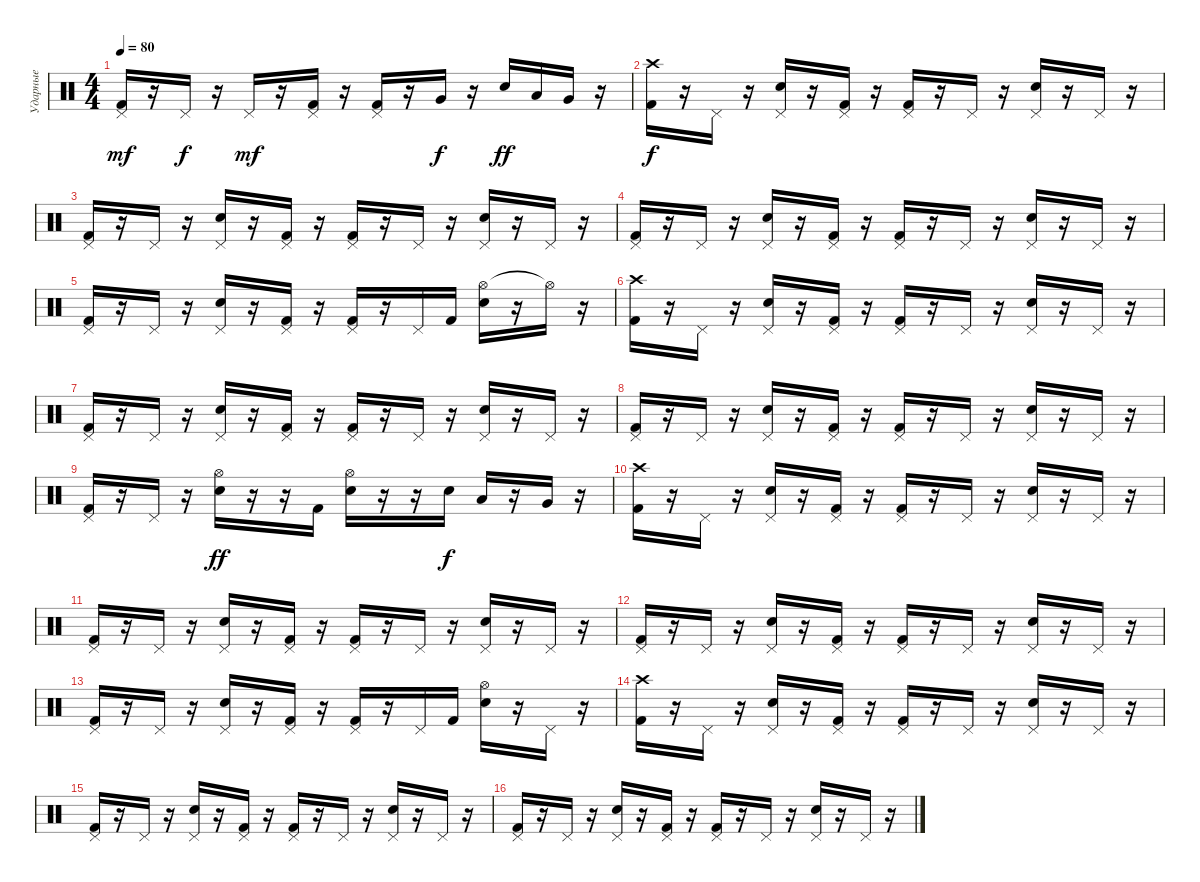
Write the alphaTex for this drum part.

\track ("Ударные" "Ударные") {instrument percussion}
\staff {score}
\articulation defaults
\ts (4 4)
\tempo 80
\clef neutral
\ks c
("Pedal Hi-Hat (hit)" "Kick (hit) 2").16{dy mf} r.16 "Pedal Hi-Hat (hit)".16{dy f} r.16 "Pedal Hi-Hat (hit)".16{dy mf} r.16 ("Pedal Hi-Hat (hit)" "Kick (hit) 2").16 r.16 ("Pedal Hi-Hat (hit)" "Kick (hit) 2").16 r.16 "Very Low Tom (hit)".16{dy f} r.16 "Electric Snare (hit)".16{dy ff} "Low Tom (hit)".16 "Very Low Tom (hit)".16 r.16 |
("Crash high (hit)" "Kick (hit) 2").16{dy f} r.16 "Pedal Hi-Hat (hit)".16 r.16 ("Pedal Hi-Hat (hit)" "Electric Snare (hit)").16 r.16 ("Pedal Hi-Hat (hit)" "Kick (hit) 2").16 r.16 ("Pedal Hi-Hat (hit)" "Kick (hit) 2").16 r.16 "Pedal Hi-Hat (hit)".16 r.16 ("Pedal Hi-Hat (hit)" "Electric Snare (hit)").16 r.16 "Pedal Hi-Hat (hit)".16 r.16 |
("Pedal Hi-Hat (hit)" "Kick (hit) 2").16 r.16 "Pedal Hi-Hat (hit)".16 r.16 ("Pedal Hi-Hat (hit)" "Electric Snare (hit)").16 r.16 ("Pedal Hi-Hat (hit)" "Kick (hit) 2").16 r.16 ("Pedal Hi-Hat (hit)" "Kick (hit) 2").16 r.16 "Pedal Hi-Hat (hit)".16 r.16 ("Pedal Hi-Hat (hit)" "Electric Snare (hit)").16 r.16 "Pedal Hi-Hat (hit)".16 r.16 |
("Pedal Hi-Hat (hit)" "Kick (hit) 2").16 r.16 "Pedal Hi-Hat (hit)".16 r.16 ("Pedal Hi-Hat (hit)" "Electric Snare (hit)").16 r.16 ("Pedal Hi-Hat (hit)" "Kick (hit) 2").16 r.16 ("Pedal Hi-Hat (hit)" "Kick (hit) 2").16 r.16 "Pedal Hi-Hat (hit)".16 r.16 ("Pedal Hi-Hat (hit)" "Electric Snare (hit)").16 r.16 "Pedal Hi-Hat (hit)".16 r.16 |
("Pedal Hi-Hat (hit)" "Kick (hit) 2").16 r.16 "Pedal Hi-Hat (hit)".16 r.16 ("Pedal Hi-Hat (hit)" "Electric Snare (hit)").16 r.16 ("Pedal Hi-Hat (hit)" "Kick (hit) 2").16 r.16 ("Pedal Hi-Hat (hit)" "Kick (hit) 2").16 r.16 "Pedal Hi-Hat (hit)".16 "Kick (hit) 2".16 ("Hi-Hat (open)" "Electric Snare (hit)").16 r.16 "Hi-Hat (open)"{t}.16 r.16 |
("Crash high (hit)" "Kick (hit) 2").16 r.16 "Pedal Hi-Hat (hit)".16 r.16 ("Pedal Hi-Hat (hit)" "Electric Snare (hit)").16 r.16 ("Pedal Hi-Hat (hit)" "Kick (hit) 2").16 r.16 ("Pedal Hi-Hat (hit)" "Kick (hit) 2").16 r.16 "Pedal Hi-Hat (hit)".16 r.16 ("Pedal Hi-Hat (hit)" "Electric Snare (hit)").16 r.16 "Pedal Hi-Hat (hit)".16 r.16 |
("Pedal Hi-Hat (hit)" "Kick (hit) 2").16 r.16 "Pedal Hi-Hat (hit)".16 r.16 ("Pedal Hi-Hat (hit)" "Electric Snare (hit)").16 r.16 ("Pedal Hi-Hat (hit)" "Kick (hit) 2").16 r.16 ("Pedal Hi-Hat (hit)" "Kick (hit) 2").16 r.16 "Pedal Hi-Hat (hit)".16 r.16 ("Pedal Hi-Hat (hit)" "Electric Snare (hit)").16 r.16 "Pedal Hi-Hat (hit)".16 r.16 |
("Pedal Hi-Hat (hit)" "Kick (hit) 2").16 r.16 "Pedal Hi-Hat (hit)".16 r.16 ("Pedal Hi-Hat (hit)" "Electric Snare (hit)").16 r.16 ("Pedal Hi-Hat (hit)" "Kick (hit) 2").16 r.16 ("Pedal Hi-Hat (hit)" "Kick (hit) 2").16 r.16 "Pedal Hi-Hat (hit)".16 r.16 ("Pedal Hi-Hat (hit)" "Electric Snare (hit)").16 r.16 "Pedal Hi-Hat (hit)".16 r.16 |
("Pedal Hi-Hat (hit)" "Kick (hit) 2").16 r.16 "Pedal Hi-Hat (hit)".16 r.16 ("Hi-Hat (open)" "Electric Snare (hit)").16{dy ff} r.16 r.16 "Kick (hit) 2".16 ("Hi-Hat (open)" "Electric Snare (hit)").16 r.16 r.16 "Electric Snare (hit)".16{dy f} "Low Tom (hit)".16 r.16 "Very Low Tom (hit)".16 r.16 |
("Crash high (hit)" "Kick (hit) 2").16 r.16 "Pedal Hi-Hat (hit)".16 r.16 ("Pedal Hi-Hat (hit)" "Electric Snare (hit)").16 r.16 ("Pedal Hi-Hat (hit)" "Kick (hit) 2").16 r.16 ("Pedal Hi-Hat (hit)" "Kick (hit) 2").16 r.16 "Pedal Hi-Hat (hit)".16 r.16 ("Pedal Hi-Hat (hit)" "Electric Snare (hit)").16 r.16 "Pedal Hi-Hat (hit)".16 r.16 |
("Pedal Hi-Hat (hit)" "Kick (hit) 2").16 r.16 "Pedal Hi-Hat (hit)".16 r.16 ("Pedal Hi-Hat (hit)" "Electric Snare (hit)").16 r.16 ("Pedal Hi-Hat (hit)" "Kick (hit) 2").16 r.16 ("Pedal Hi-Hat (hit)" "Kick (hit) 2").16 r.16 "Pedal Hi-Hat (hit)".16 r.16 ("Pedal Hi-Hat (hit)" "Electric Snare (hit)").16 r.16 "Pedal Hi-Hat (hit)".16 r.16 |
("Pedal Hi-Hat (hit)" "Kick (hit) 2").16 r.16 "Pedal Hi-Hat (hit)".16 r.16 ("Pedal Hi-Hat (hit)" "Electric Snare (hit)").16 r.16 ("Pedal Hi-Hat (hit)" "Kick (hit) 2").16 r.16 ("Pedal Hi-Hat (hit)" "Kick (hit) 2").16 r.16 "Pedal Hi-Hat (hit)".16 r.16 ("Pedal Hi-Hat (hit)" "Electric Snare (hit)").16 r.16 "Pedal Hi-Hat (hit)".16 r.16 |
("Pedal Hi-Hat (hit)" "Kick (hit) 2").16 r.16 "Pedal Hi-Hat (hit)".16 r.16 ("Pedal Hi-Hat (hit)" "Electric Snare (hit)").16 r.16 ("Pedal Hi-Hat (hit)" "Kick (hit) 2").16 r.16 ("Pedal Hi-Hat (hit)" "Kick (hit) 2").16 r.16 "Pedal Hi-Hat (hit)".16 "Kick (hit) 2".16 ("Hi-Hat (open)" "Electric Snare (hit)").16 r.16 "Pedal Hi-Hat (hit)".16 r.16 |
("Crash high (hit)" "Kick (hit) 2").16 r.16 "Pedal Hi-Hat (hit)".16 r.16 ("Pedal Hi-Hat (hit)" "Electric Snare (hit)").16 r.16 ("Pedal Hi-Hat (hit)" "Kick (hit) 2").16 r.16 ("Pedal Hi-Hat (hit)" "Kick (hit) 2").16 r.16 "Pedal Hi-Hat (hit)".16 r.16 ("Pedal Hi-Hat (hit)" "Electric Snare (hit)").16 r.16 "Pedal Hi-Hat (hit)".16 r.16 |
("Pedal Hi-Hat (hit)" "Kick (hit) 2").16 r.16 "Pedal Hi-Hat (hit)".16 r.16 ("Pedal Hi-Hat (hit)" "Electric Snare (hit)").16 r.16 ("Pedal Hi-Hat (hit)" "Kick (hit) 2").16 r.16 ("Pedal Hi-Hat (hit)" "Kick (hit) 2").16 r.16 "Pedal Hi-Hat (hit)".16 r.16 ("Pedal Hi-Hat (hit)" "Electric Snare (hit)").16 r.16 "Pedal Hi-Hat (hit)".16 r.16 |
("Pedal Hi-Hat (hit)" "Kick (hit) 2").16 r.16 "Pedal Hi-Hat (hit)".16 r.16 ("Pedal Hi-Hat (hit)" "Electric Snare (hit)").16 r.16 ("Pedal Hi-Hat (hit)" "Kick (hit) 2").16 r.16 ("Pedal Hi-Hat (hit)" "Kick (hit) 2").16 r.16 "Pedal Hi-Hat (hit)".16 r.16 ("Pedal Hi-Hat (hit)" "Electric Snare (hit)").16 r.16 "Pedal Hi-Hat (hit)".16 r.16
